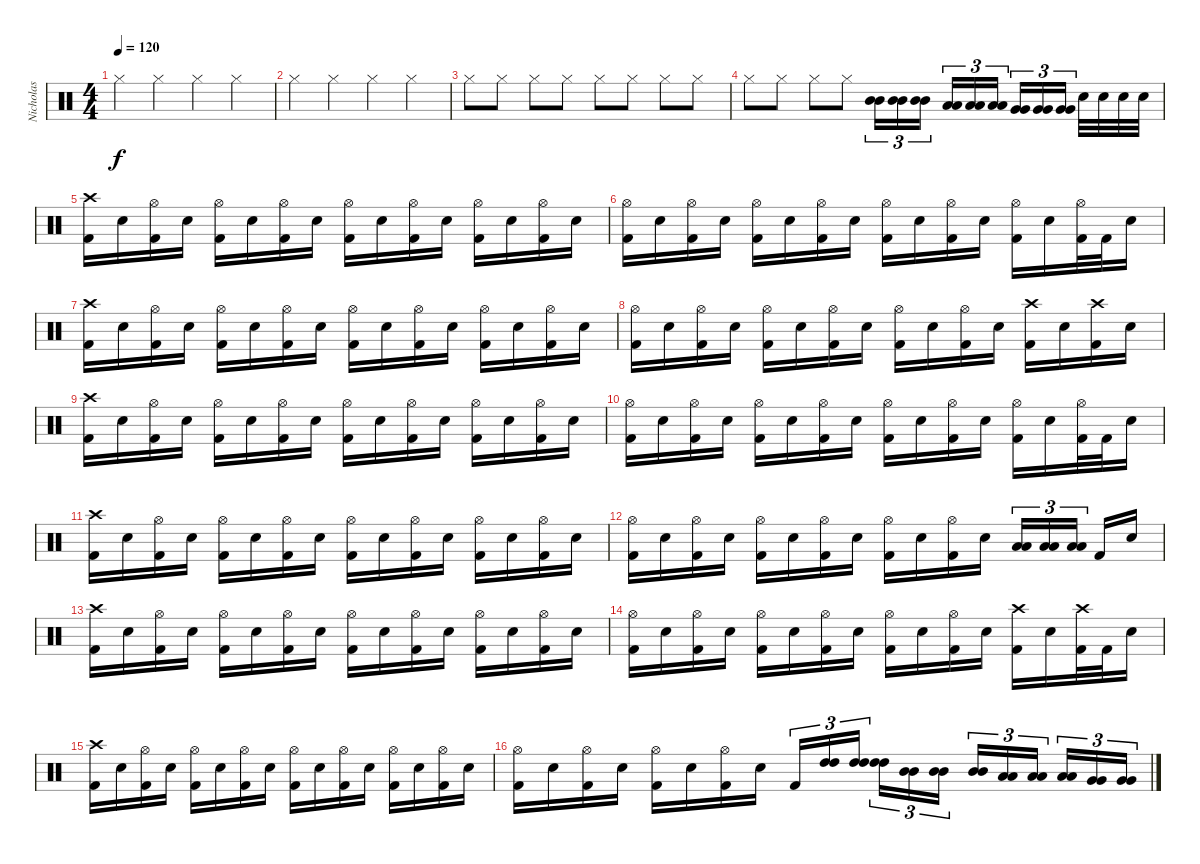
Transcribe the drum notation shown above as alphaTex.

\track ("Nicholas" "Nicholas") {instrument percussion}
\staff {score}
\articulation defaults
\ts (4 4)
\tempo 120
\clef neutral
\ks c "Hi-Hat (closed)".4{dy f} "Hi-Hat (closed)".4 "Hi-Hat (closed)".4 "Hi-Hat (closed)".4
|
"Hi-Hat (closed)".4 "Hi-Hat (closed)".4 "Hi-Hat (closed)".4 "Hi-Hat (closed)".4 |
"Hi-Hat (closed)".8 "Hi-Hat (closed)".8 "Hi-Hat (closed)".8 "Hi-Hat (closed)".8 "Hi-Hat (closed)".8 "Hi-Hat (closed)".8 "Hi-Hat (closed)".8 "Hi-Hat (closed)".8 |
"Hi-Hat (closed)".8 "Hi-Hat (closed)".8 "Hi-Hat (closed)".8 "Hi-Hat (closed)".8 ("Mid Tom (hit)" "Mid Tom (hit)").16{tu (3 2) balance 10} ("Mid Tom (hit)" "Mid Tom (hit)").16{tu (3 2)} ("Mid Tom (hit)" "Mid Tom (hit)").16{tu (3 2)} ("Low Tom (hit)" "Low Tom (hit)").16{tu (3 2) balance 8} ("Low Tom (hit)" "Low Tom (hit)").16{tu (3 2)} ("Low Tom (hit)" "Low Tom (hit)").16{tu (3 2)} ("Very Low Tom (hit)" "Very Low Tom (hit)").16{tu (3 2) balance 6} ("Very Low Tom (hit)" "Very Low Tom (hit)").16{tu (3 2)} ("Very Low Tom (hit)" "Very Low Tom (hit)").16{tu (3 2)} "Electric Snare (hit)".32{balance 8} "Electric Snare (hit)".32 "Electric Snare (hit)".32 "Electric Snare (hit)".32 |
("Crash high (hit)" "Kick (hit) 2").16 "Electric Snare (hit)".16 ("Hi-Hat (open)" "Kick (hit) 2").16 "Electric Snare (hit)".16 ("Hi-Hat (open)" "Kick (hit) 2").16 "Electric Snare (hit)".16 ("Hi-Hat (open)" "Kick (hit) 2").16 "Electric Snare (hit)".16 ("Hi-Hat (open)" "Kick (hit) 2").16 "Electric Snare (hit)".16 ("Hi-Hat (open)" "Kick (hit) 2").16 "Electric Snare (hit)".16 ("Hi-Hat (open)" "Kick (hit) 2").16 "Electric Snare (hit)".16 ("Hi-Hat (open)" "Kick (hit) 2").16 "Electric Snare (hit)".16 |
("Hi-Hat (open)" "Kick (hit) 2").16 "Electric Snare (hit)".16 ("Hi-Hat (open)" "Kick (hit) 2").16 "Electric Snare (hit)".16 ("Hi-Hat (open)" "Kick (hit) 2").16 "Electric Snare (hit)".16 ("Hi-Hat (open)" "Kick (hit) 2").16 "Electric Snare (hit)".16 ("Hi-Hat (open)" "Kick (hit) 2").16 "Electric Snare (hit)".16 ("Hi-Hat (open)" "Kick (hit) 2").16 "Electric Snare (hit)".16 ("Hi-Hat (open)" "Kick (hit) 2").16 "Electric Snare (hit)".16 ("Hi-Hat (open)" "Kick (hit) 2").32 "Kick (hit) 2".32 "Electric Snare (hit)".16 |
("Crash high (hit)" "Kick (hit) 2").16 "Electric Snare (hit)".16 ("Hi-Hat (open)" "Kick (hit) 2").16 "Electric Snare (hit)".16 ("Hi-Hat (open)" "Kick (hit) 2").16 "Electric Snare (hit)".16 ("Hi-Hat (open)" "Kick (hit) 2").16 "Electric Snare (hit)".16 ("Hi-Hat (open)" "Kick (hit) 2").16 "Electric Snare (hit)".16 ("Hi-Hat (open)" "Kick (hit) 2").16 "Electric Snare (hit)".16 ("Hi-Hat (open)" "Kick (hit) 2").16 "Electric Snare (hit)".16 ("Hi-Hat (open)" "Kick (hit) 2").16 "Electric Snare (hit)".16 |
("Hi-Hat (open)" "Kick (hit) 2").16 "Electric Snare (hit)".16 ("Hi-Hat (open)" "Kick (hit) 2").16 "Electric Snare (hit)".16 ("Hi-Hat (open)" "Kick (hit) 2").16 "Electric Snare (hit)".16 ("Hi-Hat (open)" "Kick (hit) 2").16 "Electric Snare (hit)".16 ("Hi-Hat (open)" "Kick (hit) 2").16 "Electric Snare (hit)".16 ("Hi-Hat (open)" "Kick (hit) 2").16 "Electric Snare (hit)".16 ("Crash high (hit)" "Kick (hit) 2").16 "Electric Snare (hit)".16 ("Crash high (hit)" "Kick (hit) 2").16 "Electric Snare (hit)".16 |
("Crash high (hit)" "Kick (hit) 2").16 "Electric Snare (hit)".16 ("Hi-Hat (open)" "Kick (hit) 2").16 "Electric Snare (hit)".16 ("Hi-Hat (open)" "Kick (hit) 2").16 "Electric Snare (hit)".16 ("Hi-Hat (open)" "Kick (hit) 2").16 "Electric Snare (hit)".16 ("Hi-Hat (open)" "Kick (hit) 2").16 "Electric Snare (hit)".16 ("Hi-Hat (open)" "Kick (hit) 2").16 "Electric Snare (hit)".16 ("Hi-Hat (open)" "Kick (hit) 2").16 "Electric Snare (hit)".16 ("Hi-Hat (open)" "Kick (hit) 2").16 "Electric Snare (hit)".16 |
("Hi-Hat (open)" "Kick (hit) 2").16 "Electric Snare (hit)".16 ("Hi-Hat (open)" "Kick (hit) 2").16 "Electric Snare (hit)".16 ("Hi-Hat (open)" "Kick (hit) 2").16 "Electric Snare (hit)".16 ("Hi-Hat (open)" "Kick (hit) 2").16 "Electric Snare (hit)".16 ("Hi-Hat (open)" "Kick (hit) 2").16 "Electric Snare (hit)".16 ("Hi-Hat (open)" "Kick (hit) 2").16 "Electric Snare (hit)".16 ("Hi-Hat (open)" "Kick (hit) 2").16 "Electric Snare (hit)".16 ("Hi-Hat (open)" "Kick (hit) 2").32 "Kick (hit) 2".32 "Electric Snare (hit)".16 |
("Crash high (hit)" "Kick (hit) 2").16 "Electric Snare (hit)".16 ("Hi-Hat (open)" "Kick (hit) 2").16 "Electric Snare (hit)".16 ("Hi-Hat (open)" "Kick (hit) 2").16 "Electric Snare (hit)".16 ("Hi-Hat (open)" "Kick (hit) 2").16 "Electric Snare (hit)".16 ("Hi-Hat (open)" "Kick (hit) 2").16 "Electric Snare (hit)".16 ("Hi-Hat (open)" "Kick (hit) 2").16 "Electric Snare (hit)".16 ("Hi-Hat (open)" "Kick (hit) 2").16 "Electric Snare (hit)".16 ("Hi-Hat (open)" "Kick (hit) 2").16 "Electric Snare (hit)".16 |
("Hi-Hat (open)" "Kick (hit) 2").16 "Electric Snare (hit)".16 ("Hi-Hat (open)" "Kick (hit) 2").16 "Electric Snare (hit)".16 ("Hi-Hat (open)" "Kick (hit) 2").16 "Electric Snare (hit)".16 ("Hi-Hat (open)" "Kick (hit) 2").16 "Electric Snare (hit)".16 ("Hi-Hat (open)" "Kick (hit) 2").16 "Electric Snare (hit)".16 ("Hi-Hat (open)" "Kick (hit) 2").16 "Electric Snare (hit)".16 ("Low Tom (hit)" "Low Tom (hit)").16{tu (3 2) balance 11} ("Low Tom (hit)" "Low Tom (hit)").16{tu (3 2)} ("Low Tom (hit)" "Low Tom (hit)").16{tu (3 2) balance 5} "Kick (hit) 2".16{balance 8} "Electric Snare (hit)".16 |
("Crash high (hit)" "Kick (hit) 2").16 "Electric Snare (hit)".16 ("Hi-Hat (open)" "Kick (hit) 2").16 "Electric Snare (hit)".16 ("Hi-Hat (open)" "Kick (hit) 2").16 "Electric Snare (hit)".16 ("Hi-Hat (open)" "Kick (hit) 2").16 "Electric Snare (hit)".16 ("Hi-Hat (open)" "Kick (hit) 2").16 "Electric Snare (hit)".16 ("Hi-Hat (open)" "Kick (hit) 2").16 "Electric Snare (hit)".16 ("Hi-Hat (open)" "Kick (hit) 2").16 "Electric Snare (hit)".16 ("Hi-Hat (open)" "Kick (hit) 2").16 "Electric Snare (hit)".16 |
("Hi-Hat (open)" "Kick (hit) 2").16 "Electric Snare (hit)".16 ("Hi-Hat (open)" "Kick (hit) 2").16 "Electric Snare (hit)".16 ("Hi-Hat (open)" "Kick (hit) 2").16 "Electric Snare (hit)".16 ("Hi-Hat (open)" "Kick (hit) 2").16 "Electric Snare (hit)".16 ("Hi-Hat (open)" "Kick (hit) 2").16 "Electric Snare (hit)".16 ("Hi-Hat (open)" "Kick (hit) 2").16 "Electric Snare (hit)".16 ("Crash high (hit)" "Kick (hit) 2").16 "Electric Snare (hit)".16 ("Crash high (hit)" "Kick (hit) 2").32 "Kick (hit) 2".32 "Electric Snare (hit)".16 |
("Crash high (hit)" "Kick (hit) 2").16 "Electric Snare (hit)".16 ("Hi-Hat (open)" "Kick (hit) 2").16 "Electric Snare (hit)".16 ("Hi-Hat (open)" "Kick (hit) 2").16 "Electric Snare (hit)".16 ("Hi-Hat (open)" "Kick (hit) 2").16 "Electric Snare (hit)".16 ("Hi-Hat (open)" "Kick (hit) 2").16 "Electric Snare (hit)".16 ("Hi-Hat (open)" "Kick (hit) 2").16 "Electric Snare (hit)".16 ("Hi-Hat (open)" "Kick (hit) 2").16 "Electric Snare (hit)".16 ("Hi-Hat (open)" "Kick (hit) 2").16 "Electric Snare (hit)".16 |
("Hi-Hat (open)" "Kick (hit) 2").16 "Electric Snare (hit)".16 ("Hi-Hat (open)" "Kick (hit) 2").16 "Electric Snare (hit)".16 ("Hi-Hat (open)" "Kick (hit) 2").16 "Electric Snare (hit)".16 ("Hi-Hat (open)" "Kick (hit) 2").16 "Electric Snare (hit)".16 "Kick (hit) 2".16{tu (3 2)} ("High Tom (hit)" "High Tom (hit)").16{tu (3 2) balance 11} ("High Tom (hit)" "High Tom (hit)").16{tu (3 2)} ("High Tom (hit)" "High Tom (hit)").16{tu (3 2)} ("Mid Tom (hit)" "Mid Tom (hit)").16{tu (3 2) balance 9} ("Mid Tom (hit)" "Mid Tom (hit)").16{tu (3 2)} ("Mid Tom (hit)" "Mid Tom (hit)").16{tu (3 2)} ("Low Tom (hit)" "Low Tom (hit)").16{tu (3 2) balance 7} ("Low Tom (hit)" "Low Tom (hit)").16{tu (3 2)} ("Low Tom (hit)" "Low Tom (hit)").16{tu (3 2) balance 5} ("Very Low Tom (hit)" "Very Low Tom (hit)").16{tu (3 2)} ("Very Low Tom (hit)" "Very Low Tom (hit)").16{tu (3 2)}
